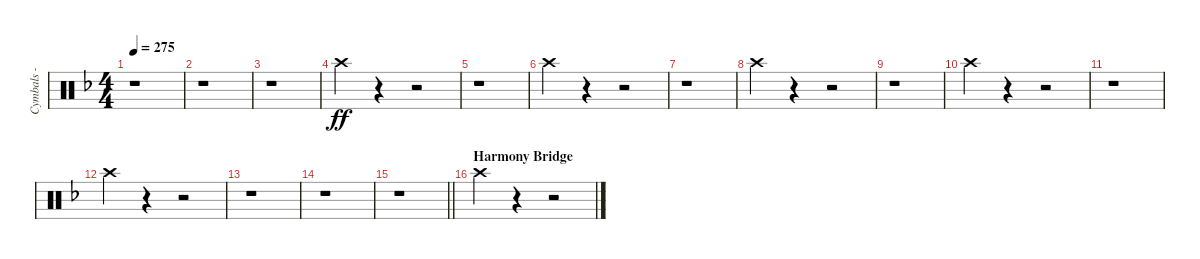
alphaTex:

\track ("Cymbals - crash" "Cymbals - ") {instrument percussion}
\staff {score}
\articulation defaults
\ts (4 4)
\tempo 275
\clef neutral
\ks dminor
r.1{dy p} |
r.1 |
r.1 |
"Crash high (hit)".4{dy ff} r.4 r.2 |
r.1 |
"Crash high (hit)".4 r.4 r.2 |
r.1 |
"Crash high (hit)".4 r.4 r.2 |
r.1 |
"Crash high (hit)".4 r.4 r.2 |
r.1 |
"Crash high (hit)".4 r.4 r.2 |
r.1 |
r.1 |
\barLineRight lightlight
r.1 |
\section ("" "Harmony Bridge")
"Crash high (hit)".4 r.4 r.2
